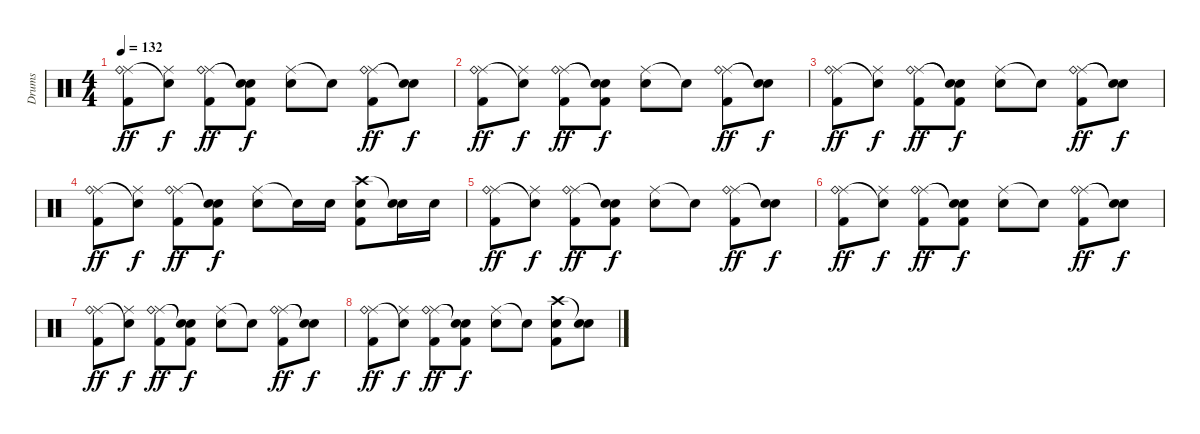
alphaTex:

\track ("Drums" "Drums") {instrument percussion}
\staff {score}
\articulation defaults
\ts (4 4)
\tempo 132
\clef neutral
\ks c
("Ride (middle)" "Ride (bell)" "Kick (hit) 2").8{dy ff volume 6} ("Ride (middle)" "Snare (hit)"{t}).8{dy f} ("Ride (middle)" "Ride (bell)" "Kick (hit) 2").8{dy ff} ("Snare (hit)"{t} "Snare (hit)"{t} "Kick (hit) 2").8{dy f} ("Ride (middle)" "Electric Snare (hit)").8 "Snare (hit)"{t}.8 ("Ride (middle)" "Ride (bell)" "Kick (hit) 2").8{dy ff} ("Snare (hit)"{t} "Snare (hit)"{t}).8{dy f} |
("Ride (middle)" "Ride (bell)" "Kick (hit) 2").8{dy ff} ("Ride (middle)" "Snare (hit)"{t}).8{dy f} ("Ride (middle)" "Ride (bell)" "Kick (hit) 2").8{dy ff} ("Snare (hit)"{t} "Snare (hit)"{t} "Kick (hit) 2").8{dy f} ("Ride (middle)" "Electric Snare (hit)").8 "Snare (hit)"{t}.8 ("Ride (middle)" "Ride (bell)" "Kick (hit) 2").8{dy ff} ("Snare (hit)"{t} "Snare (hit)"{t}).8{dy f} |
("Ride (middle)" "Ride (bell)" "Kick (hit) 2").8{dy ff volume 4} ("Ride (middle)" "Snare (hit)"{t}).8{dy f} ("Ride (middle)" "Ride (bell)" "Kick (hit) 2").8{dy ff} ("Snare (hit)"{t} "Snare (hit)"{t} "Kick (hit) 2").8{dy f} ("Ride (middle)" "Electric Snare (hit)").8 "Snare (hit)"{t}.8 ("Ride (middle)" "Ride (bell)" "Kick (hit) 2").8{dy ff} ("Snare (hit)"{t} "Snare (hit)"{t}).8{dy f} |
("Ride (middle)" "Ride (bell)" "Kick (hit) 2").8{dy ff} ("Ride (middle)" "Snare (hit)"{t}).8{dy f} ("Ride (middle)" "Ride (bell)" "Kick (hit) 2").8{dy ff} ("Snare (hit)"{t} "Snare (hit)"{t} "Kick (hit) 2").8{dy f} ("Ride (middle)" "Electric Snare (hit)").8 "Snare (hit)"{t}.16 "Electric Snare (hit)".16 ("Crash high (hit)" "Electric Snare (hit)" "Kick (hit) 2").8 ("Snare (hit)"{t} "Electric Snare (hit)").16 "Electric Snare (hit)".16 |
("Ride (middle)" "Ride (bell)" "Kick (hit) 2").8{dy ff volume 0} ("Ride (middle)" "Snare (hit)"{t}).8{dy f} ("Ride (middle)" "Ride (bell)" "Kick (hit) 2").8{dy ff} ("Snare (hit)"{t} "Snare (hit)"{t} "Kick (hit) 2").8{dy f} ("Ride (middle)" "Electric Snare (hit)").8 "Snare (hit)"{t}.8 ("Ride (middle)" "Ride (bell)" "Kick (hit) 2").8{dy ff} ("Snare (hit)"{t} "Snare (hit)"{t}).8{dy f} |
("Ride (middle)" "Ride (bell)" "Kick (hit) 2").8{dy ff} ("Ride (middle)" "Snare (hit)"{t}).8{dy f} ("Ride (middle)" "Ride (bell)" "Kick (hit) 2").8{dy ff} ("Snare (hit)"{t} "Snare (hit)"{t} "Kick (hit) 2").8{dy f} ("Ride (middle)" "Electric Snare (hit)").8 "Snare (hit)"{t}.8 ("Ride (middle)" "Ride (bell)" "Kick (hit) 2").8{dy ff} ("Snare (hit)"{t} "Snare (hit)"{t}).8{dy f} |
("Ride (middle)" "Ride (bell)" "Kick (hit) 2").8{dy ff} ("Ride (middle)" "Snare (hit)"{t}).8{dy f} ("Ride (middle)" "Ride (bell)" "Kick (hit) 2").8{dy ff} ("Snare (hit)"{t} "Snare (hit)"{t} "Kick (hit) 2").8{dy f} ("Ride (middle)" "Electric Snare (hit)").8 "Snare (hit)"{t}.8 ("Ride (middle)" "Ride (bell)" "Kick (hit) 2").8{dy ff} ("Snare (hit)"{t} "Snare (hit)"{t}).8{dy f} |
("Ride (middle)" "Ride (bell)" "Kick (hit) 2").8{dy ff} ("Ride (middle)" "Snare (hit)"{t}).8{dy f} ("Ride (middle)" "Ride (bell)" "Kick (hit) 2").8{dy ff} ("Snare (hit)"{t} "Snare (hit)"{t} "Kick (hit) 2").8{dy f} ("Ride (middle)" "Electric Snare (hit)").8 "Snare (hit)"{t}.8 ("Crash high (hit)" "Electric Snare (hit)" "Kick (hit) 2").8 ("Snare (hit)"{t} "Electric Snare (hit)").8
